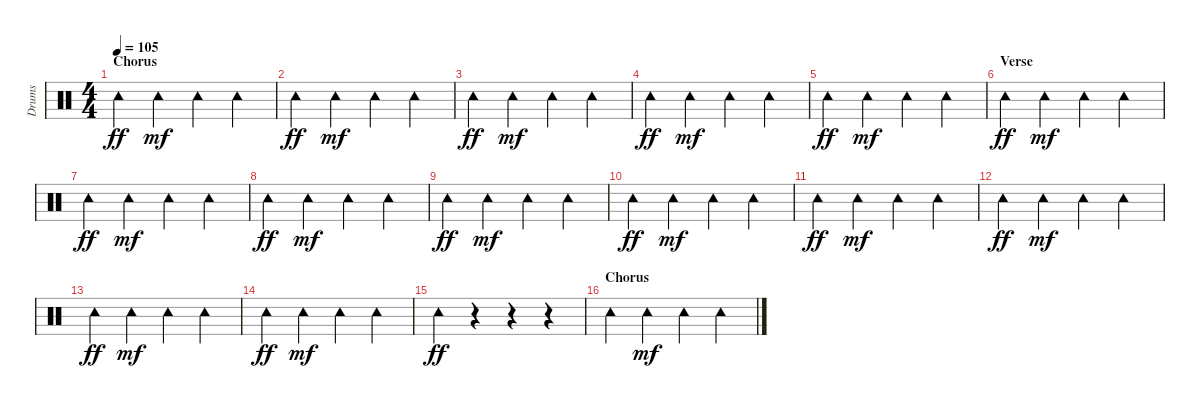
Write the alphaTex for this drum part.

\track ("Drums" "Drums") {instrument percussion}
\staff {score}
\articulation defaults
\ts (4 4)
\section ("" "Chorus")
\tempo 105
\clef neutral
\ks c "Tambourine (hit)".4{dy ff} "Tambourine (hit)".4{dy mf} "Tambourine (hit)".4 "Tambourine (hit)".4
|
"Tambourine (hit)".4{dy ff} "Tambourine (hit)".4{dy mf} "Tambourine (hit)".4 "Tambourine (hit)".4 |
"Tambourine (hit)".4{dy ff} "Tambourine (hit)".4{dy mf} "Tambourine (hit)".4 "Tambourine (hit)".4 |
"Tambourine (hit)".4{dy ff} "Tambourine (hit)".4{dy mf} "Tambourine (hit)".4 "Tambourine (hit)".4 |
"Tambourine (hit)".4{dy ff} "Tambourine (hit)".4{dy mf} "Tambourine (hit)".4 "Tambourine (hit)".4 |
\section ("" "Verse")
"Tambourine (hit)".4{dy ff} "Tambourine (hit)".4{dy mf} "Tambourine (hit)".4 "Tambourine (hit)".4 |
"Tambourine (hit)".4{dy ff} "Tambourine (hit)".4{dy mf} "Tambourine (hit)".4 "Tambourine (hit)".4 |
"Tambourine (hit)".4{dy ff} "Tambourine (hit)".4{dy mf} "Tambourine (hit)".4 "Tambourine (hit)".4 |
"Tambourine (hit)".4{dy ff} "Tambourine (hit)".4{dy mf} "Tambourine (hit)".4 "Tambourine (hit)".4 |
"Tambourine (hit)".4{dy ff} "Tambourine (hit)".4{dy mf} "Tambourine (hit)".4 "Tambourine (hit)".4 |
"Tambourine (hit)".4{dy ff} "Tambourine (hit)".4{dy mf} "Tambourine (hit)".4 "Tambourine (hit)".4 |
"Tambourine (hit)".4{dy ff} "Tambourine (hit)".4{dy mf} "Tambourine (hit)".4 "Tambourine (hit)".4 |
"Tambourine (hit)".4{dy ff} "Tambourine (hit)".4{dy mf} "Tambourine (hit)".4 "Tambourine (hit)".4 |
"Tambourine (hit)".4{dy ff} "Tambourine (hit)".4{dy mf} "Tambourine (hit)".4 "Tambourine (hit)".4 |
"Tambourine (hit)".4{dy ff} r.4 r.4 r.4 |
\section ("" "Chorus")
"Tambourine (hit)".4 "Tambourine (hit)".4{dy mf} "Tambourine (hit)".4 "Tambourine (hit)".4
